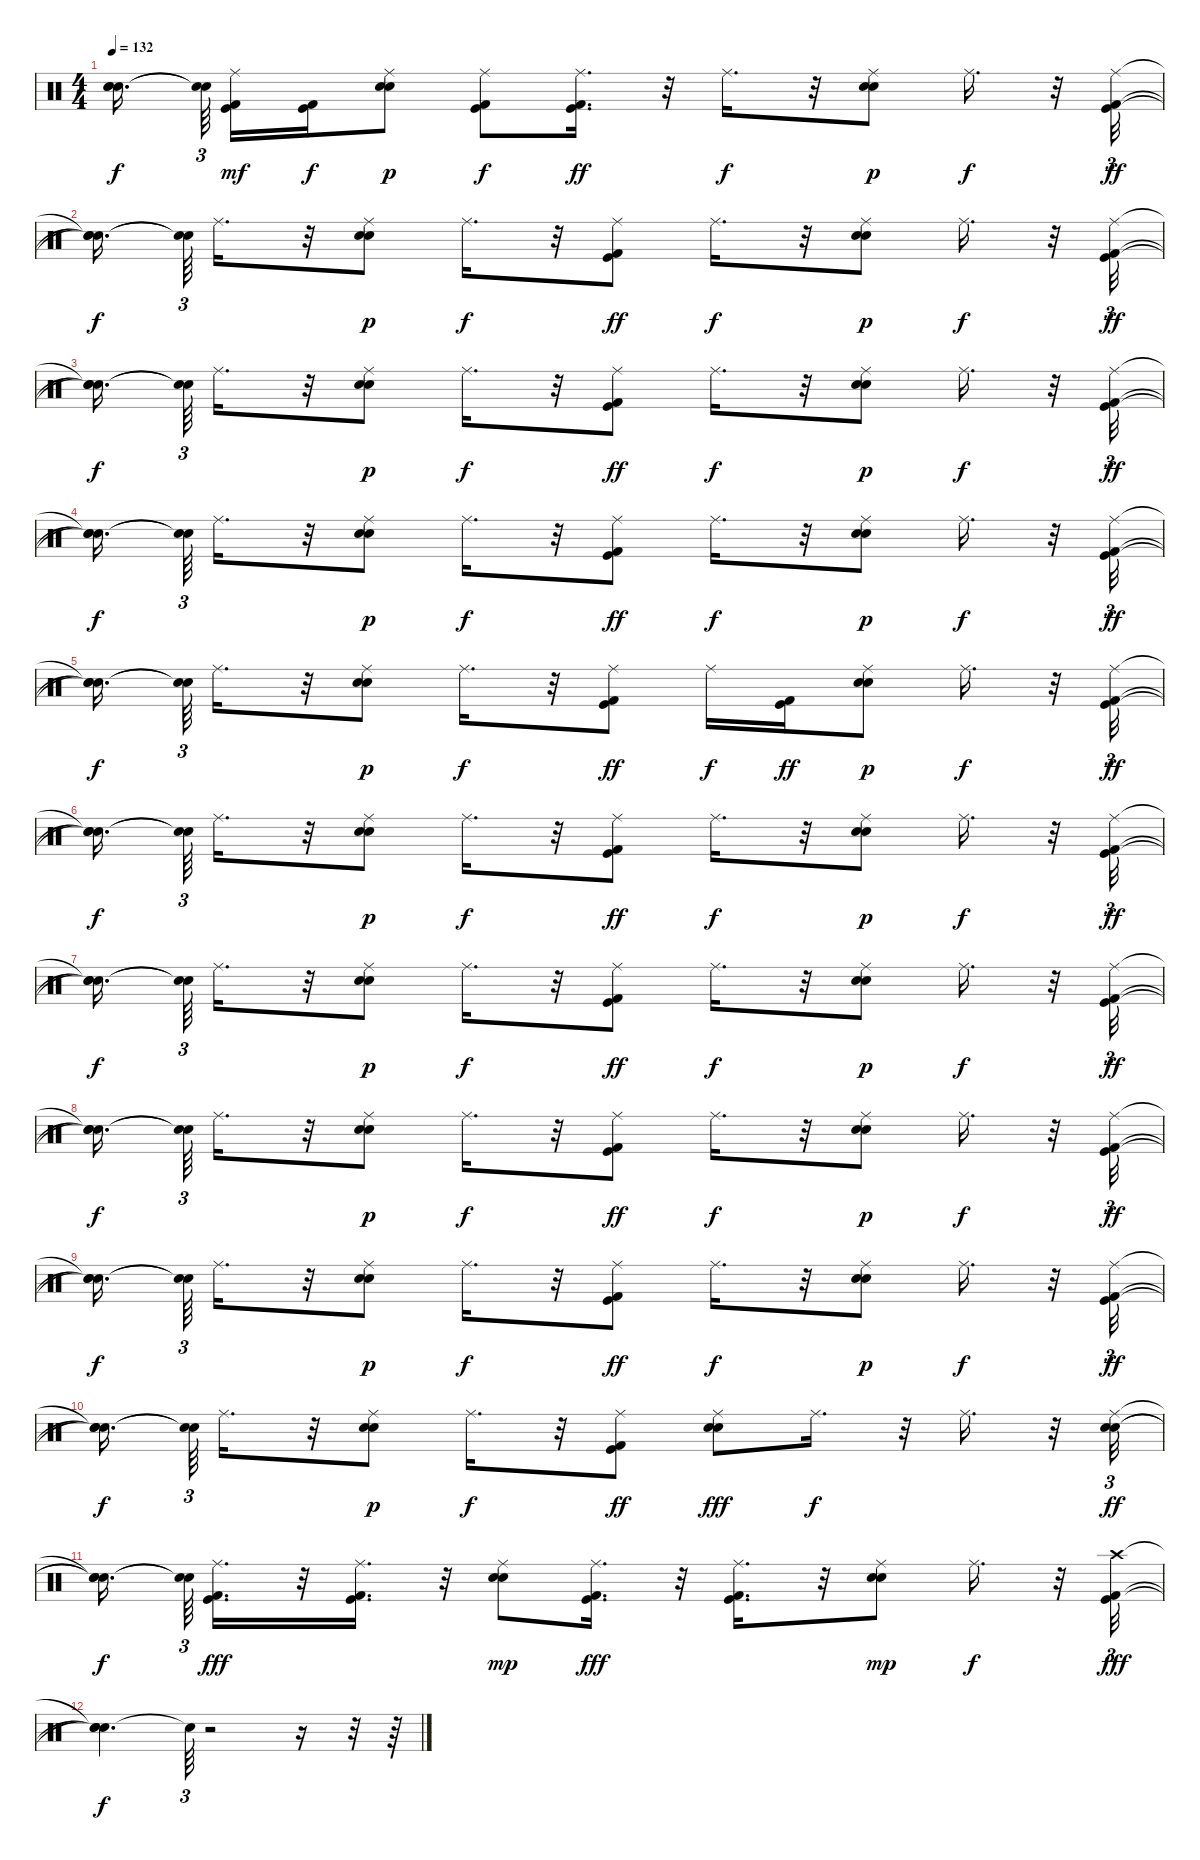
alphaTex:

\track "" {instrument percussion}
\staff {score}
\articulation defaults
\ts (4 4)
\tempo 132
\clef neutral
\ks c
("Snare (hit)"{t} "Snare (hit)"{t} "Snare (hit)"{t}).16{d dy f beam splitsecondary} ("Snare (hit)"{t} "Snare (hit)"{t}).64{tu (3 2) beam splitsecondary} ("Kick (hit) 2" "Kick (hit)" "Ride (middle)").16{dy mf} ("Kick (hit)" "Kick (hit) 2").16{dy f} ("Electric Snare (hit)" "Snare (hit) 2" "Ride (middle)").8{dy p} ("Kick (hit)" "Kick (hit) 2" "Ride (middle)").8{dy f} ("Kick (hit) 2" "Kick (hit)" "Ride (middle)").16{d dy ff} r.32 "Ride (middle)".16{d dy f} r.32 ("Electric Snare (hit)" "Snare (hit) 2" "Ride (middle)").8{dy p} "Ride (middle)".16{d dy f} r.32 ("Kick (hit) 2" "Kick (hit)" "Ride (middle)").32{tu (3 2) dy ff} |
("Snare (hit)"{t} "Snare (hit)"{t} "Snare (hit)"{t}).16{d dy f beam splitsecondary} ("Snare (hit)"{t} "Snare (hit)"{t}).64{tu (3 2)} "Ride (middle)".16{d} r.32 ("Electric Snare (hit)" "Snare (hit) 2" "Ride (middle)").8{dy p} "Ride (middle)".16{d dy f} r.32 ("Kick (hit) 2" "Kick (hit)" "Ride (middle)").8{dy ff} "Ride (middle)".16{d dy f} r.32 ("Electric Snare (hit)" "Snare (hit) 2" "Ride (middle)").8{dy p} "Ride (middle)".16{d dy f} r.32 ("Kick (hit) 2" "Kick (hit)" "Ride (middle)").32{tu (3 2) dy ff} |
("Snare (hit)"{t} "Snare (hit)"{t} "Snare (hit)"{t}).16{d dy f beam splitsecondary} ("Snare (hit)"{t} "Snare (hit)"{t}).64{tu (3 2)} "Ride (middle)".16{d} r.32 ("Electric Snare (hit)" "Snare (hit) 2" "Ride (middle)").8{dy p} "Ride (middle)".16{d dy f} r.32 ("Kick (hit) 2" "Kick (hit)" "Ride (middle)").8{dy ff} "Ride (middle)".16{d dy f} r.32 ("Electric Snare (hit)" "Snare (hit) 2" "Ride (middle)").8{dy p} "Ride (middle)".16{d dy f} r.32 ("Kick (hit) 2" "Kick (hit)" "Ride (middle)").32{tu (3 2) dy ff} |
("Snare (hit)"{t} "Snare (hit)"{t} "Snare (hit)"{t}).16{d dy f beam splitsecondary} ("Snare (hit)"{t} "Snare (hit)"{t}).64{tu (3 2)} "Ride (middle)".16{d} r.32 ("Electric Snare (hit)" "Snare (hit) 2" "Ride (middle)").8{dy p} "Ride (middle)".16{d dy f} r.32 ("Kick (hit) 2" "Kick (hit)" "Ride (middle)").8{dy ff} "Ride (middle)".16{d dy f} r.32 ("Electric Snare (hit)" "Snare (hit) 2" "Ride (middle)").8{dy p} "Ride (middle)".16{d dy f} r.32 ("Kick (hit) 2" "Kick (hit)" "Ride (middle)").32{tu (3 2) dy ff} |
("Snare (hit)"{t} "Snare (hit)"{t} "Snare (hit)"{t}).16{d dy f beam splitsecondary} ("Snare (hit)"{t} "Snare (hit)"{t}).64{tu (3 2)} "Ride (middle)".16{d} r.32 ("Electric Snare (hit)" "Snare (hit) 2" "Ride (middle)").8{dy p} "Ride (middle)".16{d dy f} r.32 ("Kick (hit) 2" "Kick (hit)" "Ride (middle)").8{dy ff} "Ride (middle)".16{dy f} ("Kick (hit) 2" "Kick (hit)").16{dy ff} ("Electric Snare (hit)" "Snare (hit) 2" "Ride (middle)").8{dy p} "Ride (middle)".16{d dy f} r.32 ("Kick (hit) 2" "Kick (hit)" "Ride (middle)").32{tu (3 2) dy ff} |
("Snare (hit)"{t} "Snare (hit)"{t} "Snare (hit)"{t}).16{d dy f beam splitsecondary} ("Snare (hit)"{t} "Snare (hit)"{t}).64{tu (3 2)} "Ride (middle)".16{d} r.32 ("Electric Snare (hit)" "Snare (hit) 2" "Ride (middle)").8{dy p} "Ride (middle)".16{d dy f} r.32 ("Kick (hit) 2" "Kick (hit)" "Ride (middle)").8{dy ff} "Ride (middle)".16{d dy f} r.32 ("Electric Snare (hit)" "Snare (hit) 2" "Ride (middle)").8{dy p} "Ride (middle)".16{d dy f} r.32 ("Kick (hit) 2" "Kick (hit)" "Ride (middle)").32{tu (3 2) dy ff} |
("Snare (hit)"{t} "Snare (hit)"{t} "Snare (hit)"{t}).16{d dy f beam splitsecondary} ("Snare (hit)"{t} "Snare (hit)"{t}).64{tu (3 2)} "Ride (middle)".16{d} r.32 ("Electric Snare (hit)" "Snare (hit) 2" "Ride (middle)").8{dy p} "Ride (middle)".16{d dy f} r.32 ("Kick (hit) 2" "Kick (hit)" "Ride (middle)").8{dy ff} "Ride (middle)".16{d dy f} r.32 ("Electric Snare (hit)" "Snare (hit) 2" "Ride (middle)").8{dy p} "Ride (middle)".16{d dy f} r.32 ("Kick (hit) 2" "Kick (hit)" "Ride (middle)").32{tu (3 2) dy ff} |
("Snare (hit)"{t} "Snare (hit)"{t} "Snare (hit)"{t}).16{d dy f beam splitsecondary} ("Snare (hit)"{t} "Snare (hit)"{t}).64{tu (3 2)} "Ride (middle)".16{d} r.32 ("Electric Snare (hit)" "Snare (hit) 2" "Ride (middle)").8{dy p} "Ride (middle)".16{d dy f} r.32 ("Kick (hit) 2" "Kick (hit)" "Ride (middle)").8{dy ff} "Ride (middle)".16{d dy f} r.32 ("Electric Snare (hit)" "Snare (hit) 2" "Ride (middle)").8{dy p} "Ride (middle)".16{d dy f} r.32 ("Kick (hit) 2" "Kick (hit)" "Ride (middle)").32{tu (3 2) dy ff} |
("Snare (hit)"{t} "Snare (hit)"{t} "Snare (hit)"{t}).16{d dy f beam splitsecondary} ("Snare (hit)"{t} "Snare (hit)"{t}).64{tu (3 2)} "Ride (middle)".16{d} r.32 ("Electric Snare (hit)" "Snare (hit) 2" "Ride (middle)").8{dy p} "Ride (middle)".16{d dy f} r.32 ("Kick (hit) 2" "Kick (hit)" "Ride (middle)").8{dy ff} "Ride (middle)".16{d dy f} r.32 ("Electric Snare (hit)" "Snare (hit) 2" "Ride (middle)").8{dy p} "Ride (middle)".16{d dy f} r.32 ("Kick (hit) 2" "Kick (hit)" "Ride (middle)").32{tu (3 2) dy ff} |
("Snare (hit)"{t} "Snare (hit)"{t} "Snare (hit)"{t}).16{d dy f beam splitsecondary} ("Snare (hit)"{t} "Snare (hit)"{t}).64{tu (3 2)} "Ride (middle)".16{d} r.32 ("Electric Snare (hit)" "Snare (hit) 2" "Ride (middle)").8{dy p} "Ride (middle)".16{d dy f} r.32 ("Kick (hit) 2" "Kick (hit)" "Ride (middle)").8{dy ff} ("Snare (hit) 2" "Electric Snare (hit)" "Ride (middle)").8{dy fff} "Ride (middle)".16{d dy f} r.32 "Ride (middle)".16{d} r.32 ("Snare (hit) 2" "Electric Snare (hit)" "Ride (middle)").32{tu (3 2) dy ff} |
("Snare (hit)"{t} "Snare (hit)"{t} "Snare (hit)"{t}).16{d dy f beam splitsecondary} ("Snare (hit)"{t} "Snare (hit)"{t}).64{tu (3 2)} ("Kick (hit)" "Kick (hit) 2" "Ride (middle)").16{d dy fff} r.32 ("Kick (hit)" "Kick (hit) 2" "Ride (middle)").16{d} r.32 ("Electric Snare (hit)" "Snare (hit) 2" "Ride (middle)").8{dy mp} ("Kick (hit)" "Kick (hit) 2" "Ride (middle)").16{d dy fff} r.32 ("Kick (hit)" "Kick (hit) 2" "Ride (middle)").16{d} r.32 ("Electric Snare (hit)" "Snare (hit) 2" "Ride (middle)").8{dy mp} "Ride (middle)".16{d dy f} r.32 ("Kick (hit) 2" "Kick (hit)" "Crash high (hit)").32{tu (3 2) dy fff} |
("Snare (hit)"{t} "Snare (hit)"{t} "Snare (hit)"{t}).4{d dy f} "Snare (hit)"{t}.64{tu (3 2)} r.2 r.16 r.32 r.64
